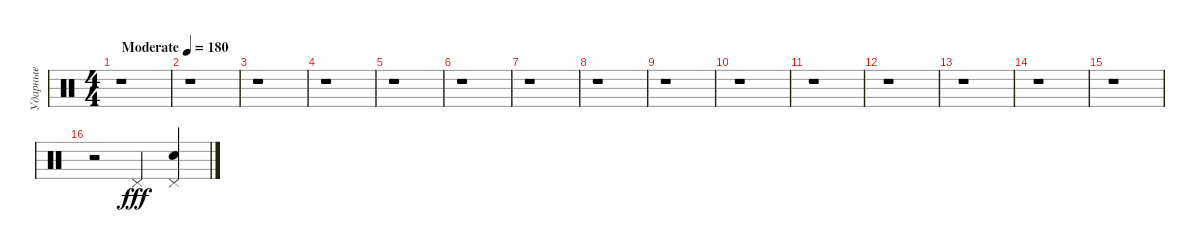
\track ("Ударные" "Ударные") {instrument percussion}
\staff {score}
\articulation defaults
\ts (4 4)
\tempo (180 "Moderate")
\clef neutral
\ks c
r.1{dy fff} |
r.1 |
r.1 |
r.1 |
r.1 |
r.1 |
r.1 |
r.1 |
r.1 |
r.1 |
r.1 |
r.1 |
r.1 |
r.1 |
r.1 |
r.2 "Pedal Hi-Hat (hit)".4 ("Pedal Hi-Hat (hit)" "Electric Snare (hit)").4
